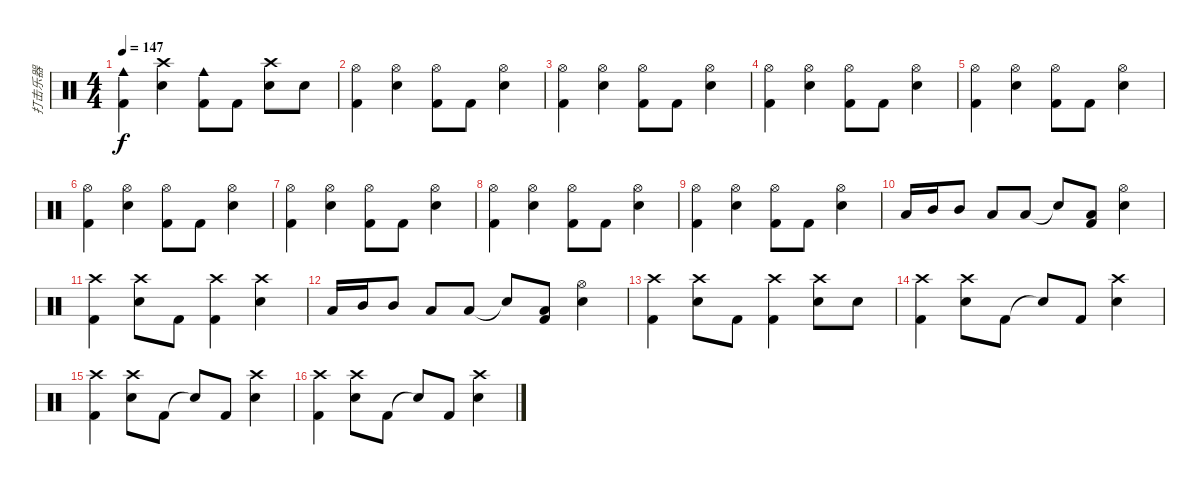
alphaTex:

\track ("打击乐器" "打击乐器") {instrument percussion}
\staff {score}
\articulation defaults
\ts (4 4)
\tempo 147
\clef neutral
\ks c
("Cowbell medium (hit)" "Kick (hit) 2").4{dy f} ("Crash high (hit)" "Snare (hit) 2").4 ("Cowbell medium (hit)" "Kick (hit) 2").8 "Kick (hit) 2".8 ("Crash high (hit)" "Snare (hit) 2").8 "Snare (hit) 2".8 |
("Hi-Hat (open)" "Kick (hit) 2").4 ("Hi-Hat (open)" "Snare (hit) 2").4 ("Hi-Hat (open)" "Kick (hit) 2").8 "Kick (hit) 2".8 ("Hi-Hat (open)" "Snare (hit) 2").4 |
("Hi-Hat (open)" "Kick (hit) 2").4 ("Hi-Hat (open)" "Snare (hit) 2").4 ("Hi-Hat (open)" "Kick (hit) 2").8 "Kick (hit) 2".8 ("Hi-Hat (open)" "Snare (hit) 2").4 |
("Hi-Hat (open)" "Kick (hit) 2").4 ("Hi-Hat (open)" "Snare (hit) 2").4 ("Hi-Hat (open)" "Kick (hit) 2").8 "Kick (hit) 2".8 ("Hi-Hat (open)" "Snare (hit) 2").4 |
("Hi-Hat (open)" "Kick (hit) 2").4 ("Hi-Hat (open)" "Snare (hit) 2").4 ("Hi-Hat (open)" "Kick (hit) 2").8 "Kick (hit) 2".8 ("Hi-Hat (open)" "Snare (hit) 2").4 |
("Hi-Hat (open)" "Kick (hit) 2").4 ("Hi-Hat (open)" "Snare (hit) 2").4 ("Hi-Hat (open)" "Kick (hit) 2").8 "Kick (hit) 2".8 ("Hi-Hat (open)" "Snare (hit) 2").4 |
("Hi-Hat (open)" "Kick (hit) 2").4 ("Hi-Hat (open)" "Snare (hit) 2").4 ("Hi-Hat (open)" "Kick (hit) 2").8 "Kick (hit) 2".8 ("Hi-Hat (open)" "Snare (hit) 2").4 |
("Hi-Hat (open)" "Kick (hit) 2").4 ("Hi-Hat (open)" "Snare (hit) 2").4 ("Hi-Hat (open)" "Kick (hit) 2").8 "Kick (hit) 2".8 ("Hi-Hat (open)" "Snare (hit) 2").4 |
("Hi-Hat (open)" "Kick (hit) 2").4 ("Hi-Hat (open)" "Snare (hit) 2").4 ("Hi-Hat (open)" "Kick (hit) 2").8 "Kick (hit) 2".8 ("Hi-Hat (open)" "Snare (hit) 2").4 |
"Low Tom (hit)".16 "Mid Tom (hit)".16 "Mid Tom (hit)".8 "Low Tom (hit)".8 "Low Tom (hit)".8 "Snare (hit)"{t}.8 ("Low Tom (hit)" "Kick (hit) 2").8 ("Hi-Hat (open)" "Snare (hit) 2").4 |
("Crash high (hit)" "Kick (hit) 2").4 ("Crash high (hit)" "Snare (hit) 2").8 "Kick (hit) 2".8 ("Crash high (hit)" "Kick (hit) 2").4 ("Crash high (hit)" "Snare (hit) 2").4 |
"Low Tom (hit)".16 "Mid Tom (hit)".16 "Mid Tom (hit)".8 "Low Tom (hit)".8 "Low Tom (hit)".8 "Snare (hit)"{t}.8 ("Low Tom (hit)" "Kick (hit) 2").8 ("Hi-Hat (open)" "Snare (hit) 2").4 |
("Crash high (hit)" "Kick (hit) 2").4 ("Crash high (hit)" "Snare (hit) 2").8 "Kick (hit) 2".8 ("Crash high (hit)" "Kick (hit) 2").4 ("Crash high (hit)" "Snare (hit) 2").8 "Snare (hit) 2".8 |
("Crash high (hit)" "Kick (hit) 2").4 ("Crash high (hit)" "Snare (hit) 2").8 "Kick (hit) 2".8 "Snare (hit)"{t}.8 "Kick (hit) 2".8 ("Crash high (hit)" "Snare (hit) 2").4 |
("Crash high (hit)" "Kick (hit) 2").4 ("Crash high (hit)" "Snare (hit) 2").8 "Kick (hit) 2".8 "Snare (hit)"{t}.8 "Kick (hit) 2".8 ("Crash high (hit)" "Snare (hit) 2").4 |
("Crash high (hit)" "Kick (hit) 2").4 ("Crash high (hit)" "Snare (hit) 2").8 "Kick (hit) 2".8 "Snare (hit)"{t}.8 "Kick (hit) 2".8 ("Crash high (hit)" "Snare (hit) 2").4
